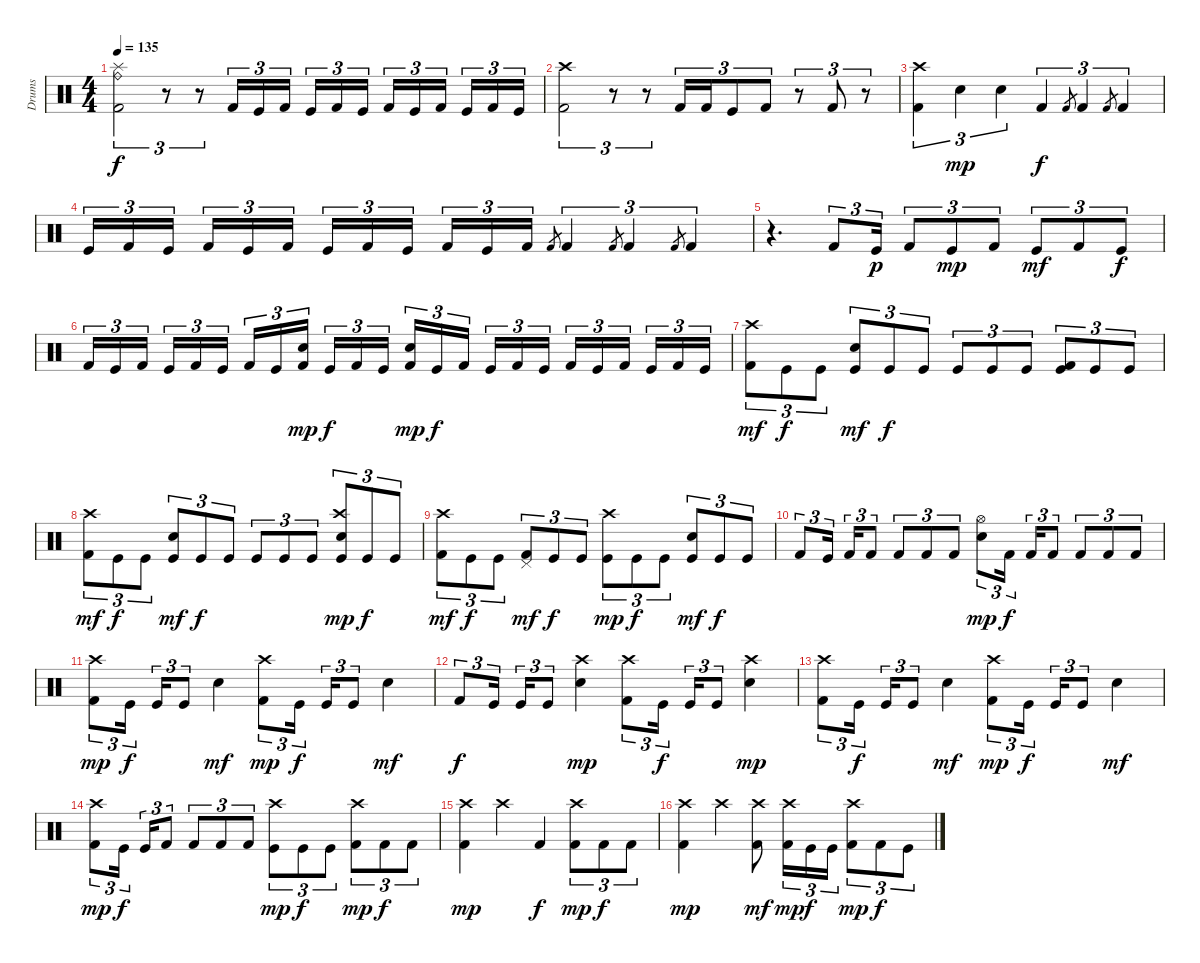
\track ("Drums" "Drums") {instrument percussion}
\staff {score}
\articulation defaults
\ts (4 4)
\tempo 135
\clef neutral
\ks c
("Kick (hit) 2" "Splash (hit)" "Ride (bell)").2{tu (3 2) dy f} r.8{tu (3 2)} r.8{tu (3 2)} "Kick (hit) 2".16{tu (3 2)} "Kick (hit)".16{tu (3 2)} "Kick (hit) 2".16{tu (3 2)} "Kick (hit)".16{tu (3 2)} "Kick (hit) 2".16{tu (3 2)} "Kick (hit)".16{tu (3 2)} "Kick (hit) 2".16{tu (3 2)} "Kick (hit)".16{tu (3 2)} "Kick (hit) 2".16{tu (3 2)} "Kick (hit)".16{tu (3 2)} "Kick (hit) 2".16{tu (3 2)} "Kick (hit)".16{tu (3 2)} |
("Kick (hit) 2" "Crash high (hit)").2{tu (3 2)} r.8{tu (3 2)} r.8{tu (3 2)} "Kick (hit) 2".16{tu (3 2)} "Kick (hit) 2".16{tu (3 2)} "Kick (hit)".8{tu (3 2)} "Kick (hit) 2".8{tu (3 2)} r.8{tu (3 2)} "Kick (hit) 2".8{tu (3 2)} r.8{tu (3 2)} |
("Kick (hit) 2" "Crash high (hit)").4{tu (3 2)} "Electric Snare (hit)".4{tu (3 2) dy mp} "Electric Snare (hit)".4{tu (3 2)} "Kick (hit) 2".4{tu (3 2) dy f} "Kick (hit) 2".8{gr} "Kick (hit) 2".4{tu (3 2)} "Kick (hit) 2".8{gr} "Kick (hit) 2".4{tu (3 2)} |
"Kick (hit)".16{tu (3 2)} "Kick (hit) 2".16{tu (3 2)} "Kick (hit)".16{tu (3 2)} "Kick (hit) 2".16{tu (3 2)} "Kick (hit)".16{tu (3 2)} "Kick (hit) 2".16{tu (3 2)} "Kick (hit)".16{tu (3 2)} "Kick (hit) 2".16{tu (3 2)} "Kick (hit)".16{tu (3 2)} "Kick (hit) 2".16{tu (3 2)} "Kick (hit)".16{tu (3 2)} "Kick (hit) 2".16{tu (3 2)} "Kick (hit) 2".8{gr} "Kick (hit) 2".4{tu (3 2)} "Kick (hit) 2".8{gr} "Kick (hit) 2".4{tu (3 2)} "Kick (hit) 2".8{gr} "Kick (hit) 2".4{tu (3 2)} |
r.4{d} "Kick (hit) 2".8{tu (3 2)} "Kick (hit)".16{tu (3 2) dy p} "Kick (hit) 2".8{tu (3 2)} "Kick (hit)".8{tu (3 2) dy mp} "Kick (hit) 2".8{tu (3 2)} "Kick (hit)".8{tu (3 2) dy mf} "Kick (hit) 2".8{tu (3 2)} "Kick (hit)".8{tu (3 2) dy f} |
"Kick (hit) 2".16{tu (3 2)} "Kick (hit)".16{tu (3 2)} "Kick (hit) 2".16{tu (3 2)} "Kick (hit)".16{tu (3 2)} "Kick (hit) 2".16{tu (3 2)} "Kick (hit)".16{tu (3 2)} "Kick (hit) 2".16{tu (3 2)} "Kick (hit)".16{tu (3 2)} ("Kick (hit) 2" "Electric Snare (hit)").16{tu (3 2) dy mp} "Kick (hit)".16{tu (3 2) dy f} "Kick (hit) 2".16{tu (3 2)} "Kick (hit)".16{tu (3 2)} ("Kick (hit) 2" "Electric Snare (hit)").16{tu (3 2) dy mp} "Kick (hit)".16{tu (3 2) dy f} "Kick (hit) 2".16{tu (3 2)} "Kick (hit)".16{tu (3 2)} "Kick (hit) 2".16{tu (3 2)} "Kick (hit)".16{tu (3 2)} "Kick (hit) 2".16{tu (3 2)} "Kick (hit)".16{tu (3 2)} "Kick (hit) 2".16{tu (3 2)} "Kick (hit)".16{tu (3 2)} "Kick (hit) 2".16{tu (3 2)} "Kick (hit)".16{tu (3 2)} |
("Kick (hit) 2" "Crash high (hit)").8{tu (3 2) dy mf} "Kick (hit)".8{tu (3 2) dy f} "Kick (hit)".8{tu (3 2)} ("Kick (hit)" "Snare (hit) 2").8{tu (3 2) dy mf} "Kick (hit)".8{tu (3 2) dy f} "Kick (hit)".8{tu (3 2)} "Kick (hit)".8{tu (3 2)} "Kick (hit)".8{tu (3 2)} "Kick (hit)".8{tu (3 2)} ("Kick (hit)" "Kick (hit) 2").8{tu (3 2)} "Kick (hit)".8{tu (3 2)} "Kick (hit)".8{tu (3 2)} |
("Kick (hit) 2" "Crash high (hit)").8{tu (3 2) dy mf} "Kick (hit)".8{tu (3 2) dy f} "Kick (hit)".8{tu (3 2)} ("Kick (hit)" "Snare (hit) 2").8{tu (3 2) dy mf} "Kick (hit)".8{tu (3 2) dy f} "Kick (hit)".8{tu (3 2)} "Kick (hit)".8{tu (3 2)} "Kick (hit)".8{tu (3 2)} "Kick (hit)".8{tu (3 2)} ("Kick (hit)" "Snare (hit) 2" "Crash high (hit)").8{tu (3 2) dy mp} "Kick (hit)".8{tu (3 2) dy f} "Kick (hit)".8{tu (3 2)} |
("Kick (hit) 2" "Crash high (hit)").8{tu (3 2) dy mf} "Kick (hit)".8{tu (3 2) dy f} "Kick (hit)".8{tu (3 2)} ("Kick (hit) 2" "Pedal Hi-Hat (hit)").8{tu (3 2) dy mf} "Kick (hit)".8{tu (3 2) dy f} "Kick (hit)".8{tu (3 2)} ("Kick (hit)" "Crash high (hit)").8{tu (3 2) dy mp} "Kick (hit)".8{tu (3 2) dy f} "Kick (hit)".8{tu (3 2)} ("Kick (hit)" "Snare (hit) 2").8{tu (3 2) dy mf} "Kick (hit)".8{tu (3 2) dy f} "Kick (hit)".8{tu (3 2)} |
"Kick (hit) 2".8{tu (3 2)} "Kick (hit)".16{tu (3 2)} "Kick (hit) 2".16{tu (3 2)} "Kick (hit) 2".8{tu (3 2)} "Kick (hit) 2".8{tu (3 2)} "Kick (hit) 2".8{tu (3 2)} "Kick (hit) 2".8{tu (3 2)} ("Snare (hit) 2" "Hi-Hat (open)").8{tu (3 2) dy mp} "Kick (hit) 2".16{tu (3 2) dy f} "Kick (hit) 2".16{tu (3 2)} "Kick (hit) 2".8{tu (3 2)} "Kick (hit) 2".8{tu (3 2)} "Kick (hit) 2".8{tu (3 2)} "Kick (hit) 2".8{tu (3 2)} |
("Kick (hit) 2" "Crash high (hit)").8{tu (3 2) dy mp} "Kick (hit)".16{tu (3 2) dy f} "Kick (hit)".16{tu (3 2)} "Kick (hit)".8{tu (3 2)} "Snare (hit) 2".4{dy mf} ("Kick (hit) 2" "Crash high (hit)").8{tu (3 2) dy mp} "Kick (hit)".16{tu (3 2) dy f} "Kick (hit)".16{tu (3 2)} "Kick (hit)".8{tu (3 2)} "Snare (hit) 2".4{dy mf} |
"Kick (hit) 2".8{tu (3 2) dy f} "Kick (hit)".16{tu (3 2)} "Kick (hit)".16{tu (3 2)} "Kick (hit)".8{tu (3 2)} ("Snare (hit) 2" "Crash high (hit)").4{dy mp} ("Kick (hit) 2" "Crash high (hit)").8{tu (3 2)} "Kick (hit)".16{tu (3 2) dy f} "Kick (hit)".16{tu (3 2)} "Kick (hit)".8{tu (3 2)} ("Snare (hit) 2" "Crash high (hit)").4{dy mp} |
("Kick (hit) 2" "Crash high (hit)").8{tu (3 2)} "Kick (hit)".16{tu (3 2) dy f} "Kick (hit)".16{tu (3 2)} "Kick (hit)".8{tu (3 2)} "Snare (hit) 2".4{dy mf} ("Kick (hit) 2" "Crash high (hit)").8{tu (3 2) dy mp} "Kick (hit)".16{tu (3 2) dy f} "Kick (hit)".16{tu (3 2)} "Kick (hit)".8{tu (3 2)} "Snare (hit) 2".4{dy mf} |
("Kick (hit) 2" "Crash high (hit)").8{tu (3 2) dy mp} "Kick (hit)".16{tu (3 2) dy f} "Kick (hit)".16{tu (3 2)} "Kick (hit) 2".8{tu (3 2)} "Kick (hit) 2".8{tu (3 2)} "Kick (hit) 2".8{tu (3 2)} "Kick (hit) 2".8{tu (3 2)} ("Kick (hit)" "Crash high (hit)").8{tu (3 2) dy mp} "Kick (hit)".8{tu (3 2) dy f} "Kick (hit)".8{tu (3 2)} ("Kick (hit) 2" "Crash high (hit)").8{tu (3 2) dy mp} "Kick (hit) 2".8{tu (3 2) dy f} "Kick (hit) 2".8{tu (3 2)} |
("Kick (hit) 2" "Crash high (hit)").4{dy mp} "Crash high (hit)".4 "Kick (hit) 2".4{dy f} ("Kick (hit) 2" "Crash high (hit)").8{tu (3 2) dy mp} "Kick (hit) 2".8{tu (3 2) dy f} "Kick (hit) 2".8{tu (3 2)} |
("Kick (hit) 2" "Crash high (hit)").4{dy mp} "Crash high (hit)".4 ("Kick (hit) 2" "Crash high (hit)").8{dy mf} ("Kick (hit) 2" "Crash high (hit)").16{tu (3 2) dy mp} "Kick (hit)".16{tu (3 2) dy f} "Kick (hit)".16{tu (3 2)} ("Kick (hit) 2" "Crash high (hit)").8{tu (3 2) dy mp} "Kick (hit) 2".8{tu (3 2) dy f} "Kick (hit)".8{tu (3 2)}
